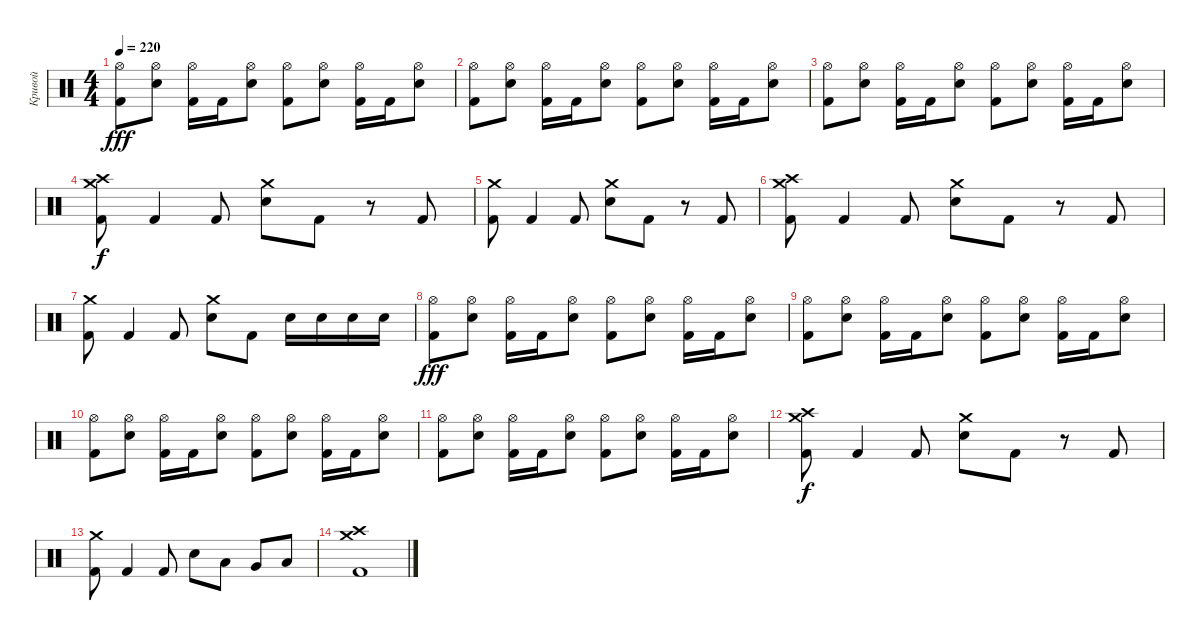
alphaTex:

\track ("Кривой" "Кривой") {instrument percussion}
\staff {score}
\articulation defaults
\ts (4 4)
\tempo 220
\clef neutral
\ks c
("Hi-Hat (open)" "Kick (hit) 2").8{dy fff} ("Hi-Hat (open)" "Electric Snare (hit)").8 ("Hi-Hat (open)" "Kick (hit) 2").16 "Kick (hit) 2".16 ("Hi-Hat (open)" "Electric Snare (hit)").8 ("Hi-Hat (open)" "Kick (hit) 2").8 ("Hi-Hat (open)" "Electric Snare (hit)").8 ("Hi-Hat (open)" "Kick (hit) 2").16 "Kick (hit) 2".16 ("Hi-Hat (open)" "Electric Snare (hit)").8 |
("Hi-Hat (open)" "Kick (hit) 2").8 ("Hi-Hat (open)" "Electric Snare (hit)").8 ("Hi-Hat (open)" "Kick (hit) 2").16 "Kick (hit) 2".16 ("Hi-Hat (open)" "Electric Snare (hit)").8 ("Hi-Hat (open)" "Kick (hit) 2").8 ("Hi-Hat (open)" "Electric Snare (hit)").8 ("Hi-Hat (open)" "Kick (hit) 2").16 "Kick (hit) 2".16 ("Hi-Hat (open)" "Electric Snare (hit)").8 |
("Hi-Hat (open)" "Kick (hit) 2").8 ("Hi-Hat (open)" "Electric Snare (hit)").8 ("Hi-Hat (open)" "Kick (hit) 2").16 "Kick (hit) 2".16 ("Hi-Hat (open)" "Electric Snare (hit)").8 ("Hi-Hat (open)" "Kick (hit) 2").8 ("Hi-Hat (open)" "Electric Snare (hit)").8 ("Hi-Hat (open)" "Kick (hit) 2").16 "Kick (hit) 2".16 ("Hi-Hat (open)" "Electric Snare (hit)").8 |
("Crash medium (hit)" "Crash high (hit)" "Kick (hit) 2").8{dy f} "Kick (hit) 2".4 "Kick (hit) 2".8 ("Crash medium (hit)" "Electric Snare (hit)").8 "Kick (hit) 2".8 r.8 "Kick (hit) 2".8 |
("Crash medium (hit)" "Kick (hit) 2").8 "Kick (hit) 2".4 "Kick (hit) 2".8 ("Crash medium (hit)" "Electric Snare (hit)").8 "Kick (hit) 2".8 r.8 "Kick (hit) 2".8 |
("Crash medium (hit)" "Crash high (hit)" "Kick (hit) 2").8 "Kick (hit) 2".4 "Kick (hit) 2".8 ("Crash medium (hit)" "Electric Snare (hit)").8 "Kick (hit) 2".8 r.8 "Kick (hit) 2".8 |
("Crash medium (hit)" "Kick (hit) 2").8 "Kick (hit) 2".4 "Kick (hit) 2".8 ("Crash medium (hit)" "Electric Snare (hit)").8 "Kick (hit) 2".8 "Electric Snare (hit)".16 "Electric Snare (hit)".16 "Electric Snare (hit)".16 "Electric Snare (hit)".16 |
("Hi-Hat (open)" "Kick (hit) 2").8{dy fff} ("Hi-Hat (open)" "Electric Snare (hit)").8 ("Hi-Hat (open)" "Kick (hit) 2").16 "Kick (hit) 2".16 ("Hi-Hat (open)" "Electric Snare (hit)").8 ("Hi-Hat (open)" "Kick (hit) 2").8 ("Hi-Hat (open)" "Electric Snare (hit)").8 ("Hi-Hat (open)" "Kick (hit) 2").16 "Kick (hit) 2".16 ("Hi-Hat (open)" "Electric Snare (hit)").8 |
("Hi-Hat (open)" "Kick (hit) 2").8 ("Hi-Hat (open)" "Electric Snare (hit)").8 ("Hi-Hat (open)" "Kick (hit) 2").16 "Kick (hit) 2".16 ("Hi-Hat (open)" "Electric Snare (hit)").8 ("Hi-Hat (open)" "Kick (hit) 2").8 ("Hi-Hat (open)" "Electric Snare (hit)").8 ("Hi-Hat (open)" "Kick (hit) 2").16 "Kick (hit) 2".16 ("Hi-Hat (open)" "Electric Snare (hit)").8 |
("Hi-Hat (open)" "Kick (hit) 2").8 ("Hi-Hat (open)" "Electric Snare (hit)").8 ("Hi-Hat (open)" "Kick (hit) 2").16 "Kick (hit) 2".16 ("Hi-Hat (open)" "Electric Snare (hit)").8 ("Hi-Hat (open)" "Kick (hit) 2").8 ("Hi-Hat (open)" "Electric Snare (hit)").8 ("Hi-Hat (open)" "Kick (hit) 2").16 "Kick (hit) 2".16 ("Hi-Hat (open)" "Electric Snare (hit)").8 |
("Hi-Hat (open)" "Kick (hit) 2").8 ("Hi-Hat (open)" "Electric Snare (hit)").8 ("Hi-Hat (open)" "Kick (hit) 2").16 "Kick (hit) 2".16 ("Hi-Hat (open)" "Electric Snare (hit)").8 ("Hi-Hat (open)" "Kick (hit) 2").8 ("Hi-Hat (open)" "Electric Snare (hit)").8 ("Hi-Hat (open)" "Kick (hit) 2").16 "Kick (hit) 2".16 ("Hi-Hat (open)" "Electric Snare (hit)").8 |
("Crash medium (hit)" "Crash high (hit)" "Kick (hit) 2").8{dy f} "Kick (hit) 2".4 "Kick (hit) 2".8 ("Crash medium (hit)" "Electric Snare (hit)").8 "Kick (hit) 2".8 r.8 "Kick (hit) 2".8 |
("Crash medium (hit)" "Kick (hit) 2").8 "Kick (hit) 2".4 "Kick (hit) 2".8 "Electric Snare (hit)".8 "Low Tom (hit)".8 "Very Low Tom (hit)".8 "Low Floor Tom (hit)".8 |
("Crash medium (hit)" "Crash high (hit)" "Kick (hit) 2").1
